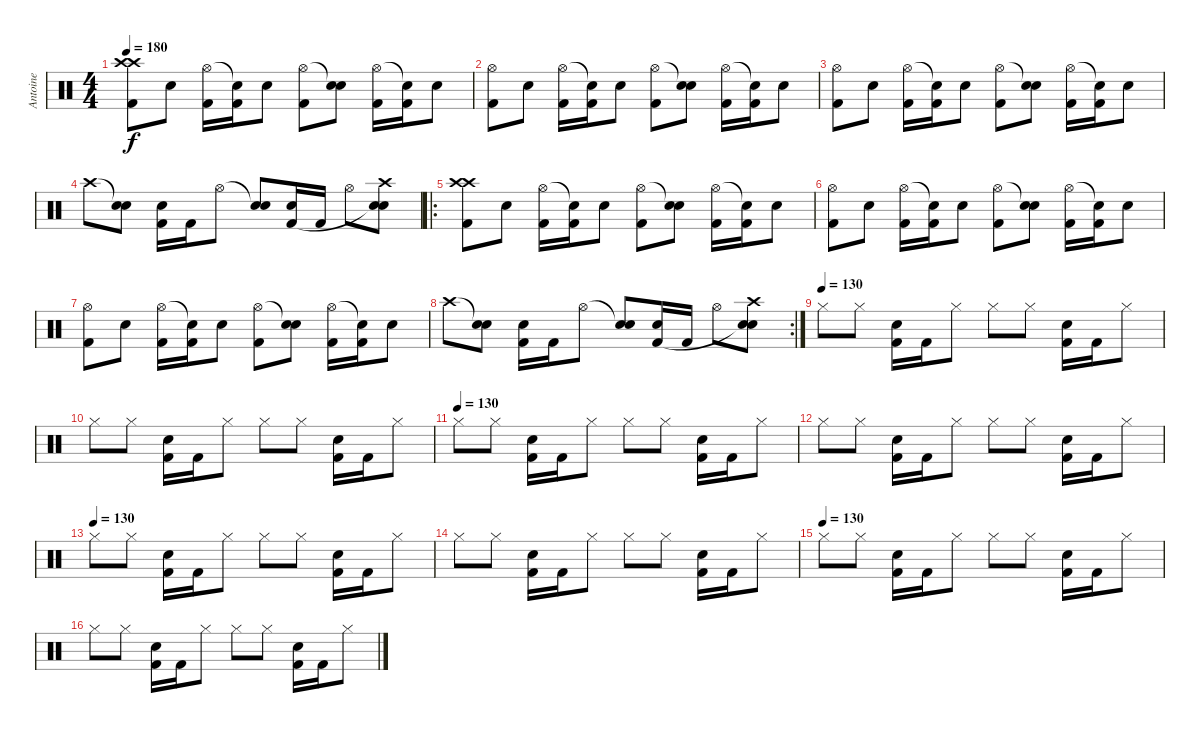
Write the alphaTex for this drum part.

\track ("Antoine" "Antoine") {instrument percussion}
\staff {score}
\articulation defaults
\ts (4 4)
\tempo 180
\clef neutral
\ks c
("Crash high (hit)" "Crash high (hit)" "Kick (hit) 2").8{dy f} "Electric Snare (hit)".8 ("Hi-Hat (open)" "Kick (hit) 2").16 ("Snare (hit)"{t} "Kick (hit) 2").16 "Electric Snare (hit)".8 ("Hi-Hat (open)" "Kick (hit) 2").8 ("Snare (hit)"{t} "Electric Snare (hit)").8 ("Hi-Hat (open)" "Kick (hit) 2").16 ("Snare (hit)"{t} "Kick (hit) 2").16 "Electric Snare (hit)".8 |
("Hi-Hat (open)" "Kick (hit) 2").8 "Electric Snare (hit)".8 ("Hi-Hat (open)" "Kick (hit) 2").16 ("Snare (hit)"{t} "Kick (hit) 2").16 "Electric Snare (hit)".8 ("Hi-Hat (open)" "Kick (hit) 2").8 ("Snare (hit)"{t} "Electric Snare (hit)").8 ("Hi-Hat (open)" "Kick (hit) 2").16 ("Snare (hit)"{t} "Kick (hit) 2").16 "Electric Snare (hit)".8 |
("Hi-Hat (open)" "Kick (hit) 2").8 "Electric Snare (hit)".8 ("Hi-Hat (open)" "Kick (hit) 2").16 ("Snare (hit)"{t} "Kick (hit) 2").16 "Electric Snare (hit)".8 ("Hi-Hat (open)" "Kick (hit) 2").8 ("Snare (hit)"{t} "Electric Snare (hit)").8 ("Hi-Hat (open)" "Kick (hit) 2").16 ("Snare (hit)"{t} "Kick (hit) 2").16 "Electric Snare (hit)".8 |
"Crash high (hit)".8 ("Snare (hit)"{t} "Electric Snare (hit)").8 ("Electric Snare (hit)" "Kick (hit) 2").16 "Kick (hit) 2".16 "Hi-Hat (open)".8 ("Snare (hit)"{t} "Electric Snare (hit)").8 ("Electric Snare (hit)" "Kick (hit) 2").16 "Kick (hit) 2".16 "Hi-Hat (open)".8 ("Crash high (hit)" "Snare (hit)"{t} "Electric Snare (hit)").8 |
\ro
("Crash high (hit)" "Crash high (hit)" "Kick (hit) 2").8 "Electric Snare (hit)".8 ("Hi-Hat (open)" "Kick (hit) 2").16 ("Snare (hit)"{t} "Kick (hit) 2").16 "Electric Snare (hit)".8 ("Hi-Hat (open)" "Kick (hit) 2").8 ("Snare (hit)"{t} "Electric Snare (hit)").8 ("Hi-Hat (open)" "Kick (hit) 2").16 ("Snare (hit)"{t} "Kick (hit) 2").16 "Electric Snare (hit)".8 |
("Hi-Hat (open)" "Kick (hit) 2").8 "Electric Snare (hit)".8 ("Hi-Hat (open)" "Kick (hit) 2").16 ("Snare (hit)"{t} "Kick (hit) 2").16 "Electric Snare (hit)".8 ("Hi-Hat (open)" "Kick (hit) 2").8 ("Snare (hit)"{t} "Electric Snare (hit)").8 ("Hi-Hat (open)" "Kick (hit) 2").16 ("Snare (hit)"{t} "Kick (hit) 2").16 "Electric Snare (hit)".8 |
("Hi-Hat (open)" "Kick (hit) 2").8 "Electric Snare (hit)".8 ("Hi-Hat (open)" "Kick (hit) 2").16 ("Snare (hit)"{t} "Kick (hit) 2").16 "Electric Snare (hit)".8 ("Hi-Hat (open)" "Kick (hit) 2").8 ("Snare (hit)"{t} "Electric Snare (hit)").8 ("Hi-Hat (open)" "Kick (hit) 2").16 ("Snare (hit)"{t} "Kick (hit) 2").16 "Electric Snare (hit)".8 |
\rc 2 "Crash high (hit)".8
("Snare (hit)"{t} "Electric Snare (hit)").8 ("Electric Snare (hit)" "Kick (hit) 2").16 "Kick (hit) 2".16 "Hi-Hat (open)".8 ("Snare (hit)"{t} "Electric Snare (hit)").8 ("Electric Snare (hit)" "Kick (hit) 2").16 "Kick (hit) 2".16 "Hi-Hat (open)".8 ("Crash high (hit)" "Snare (hit)"{t} "Electric Snare (hit)").8 |
\tempo (130)
"Hi-Hat (closed)".8 "Hi-Hat (closed)".8 ("Electric Snare (hit)" "Kick (hit) 2").16 "Kick (hit) 2".16 "Hi-Hat (closed)".8 "Hi-Hat (closed)".8 "Hi-Hat (closed)".8 ("Electric Snare (hit)" "Kick (hit) 2").16 "Kick (hit) 2".16 "Hi-Hat (closed)".8 |
"Hi-Hat (closed)".8 "Hi-Hat (closed)".8 ("Electric Snare (hit)" "Kick (hit) 2").16 "Kick (hit) 2".16 "Hi-Hat (closed)".8 "Hi-Hat (closed)".8 "Hi-Hat (closed)".8 ("Electric Snare (hit)" "Kick (hit) 2").16 "Kick (hit) 2".16 "Hi-Hat (closed)".8 |
\tempo (130)
"Hi-Hat (closed)".8 "Hi-Hat (closed)".8 ("Electric Snare (hit)" "Kick (hit) 2").16 "Kick (hit) 2".16 "Hi-Hat (closed)".8 "Hi-Hat (closed)".8 "Hi-Hat (closed)".8 ("Electric Snare (hit)" "Kick (hit) 2").16 "Kick (hit) 2".16 "Hi-Hat (closed)".8 |
"Hi-Hat (closed)".8 "Hi-Hat (closed)".8 ("Electric Snare (hit)" "Kick (hit) 2").16 "Kick (hit) 2".16 "Hi-Hat (closed)".8 "Hi-Hat (closed)".8 "Hi-Hat (closed)".8 ("Electric Snare (hit)" "Kick (hit) 2").16 "Kick (hit) 2".16 "Hi-Hat (closed)".8 |
\tempo (130)
"Hi-Hat (closed)".8 "Hi-Hat (closed)".8 ("Electric Snare (hit)" "Kick (hit) 2").16 "Kick (hit) 2".16 "Hi-Hat (closed)".8 "Hi-Hat (closed)".8 "Hi-Hat (closed)".8 ("Electric Snare (hit)" "Kick (hit) 2").16 "Kick (hit) 2".16 "Hi-Hat (closed)".8 |
"Hi-Hat (closed)".8 "Hi-Hat (closed)".8 ("Electric Snare (hit)" "Kick (hit) 2").16 "Kick (hit) 2".16 "Hi-Hat (closed)".8 "Hi-Hat (closed)".8 "Hi-Hat (closed)".8 ("Electric Snare (hit)" "Kick (hit) 2").16 "Kick (hit) 2".16 "Hi-Hat (closed)".8 |
\tempo (130)
"Hi-Hat (closed)".8 "Hi-Hat (closed)".8 ("Electric Snare (hit)" "Kick (hit) 2").16 "Kick (hit) 2".16 "Hi-Hat (closed)".8 "Hi-Hat (closed)".8 "Hi-Hat (closed)".8 ("Electric Snare (hit)" "Kick (hit) 2").16 "Kick (hit) 2".16 "Hi-Hat (closed)".8 |
"Hi-Hat (closed)".8 "Hi-Hat (closed)".8 ("Electric Snare (hit)" "Kick (hit) 2").16 "Kick (hit) 2".16 "Hi-Hat (closed)".8 "Hi-Hat (closed)".8 "Hi-Hat (closed)".8 ("Electric Snare (hit)" "Kick (hit) 2").16 "Kick (hit) 2".16 "Hi-Hat (closed)".8
